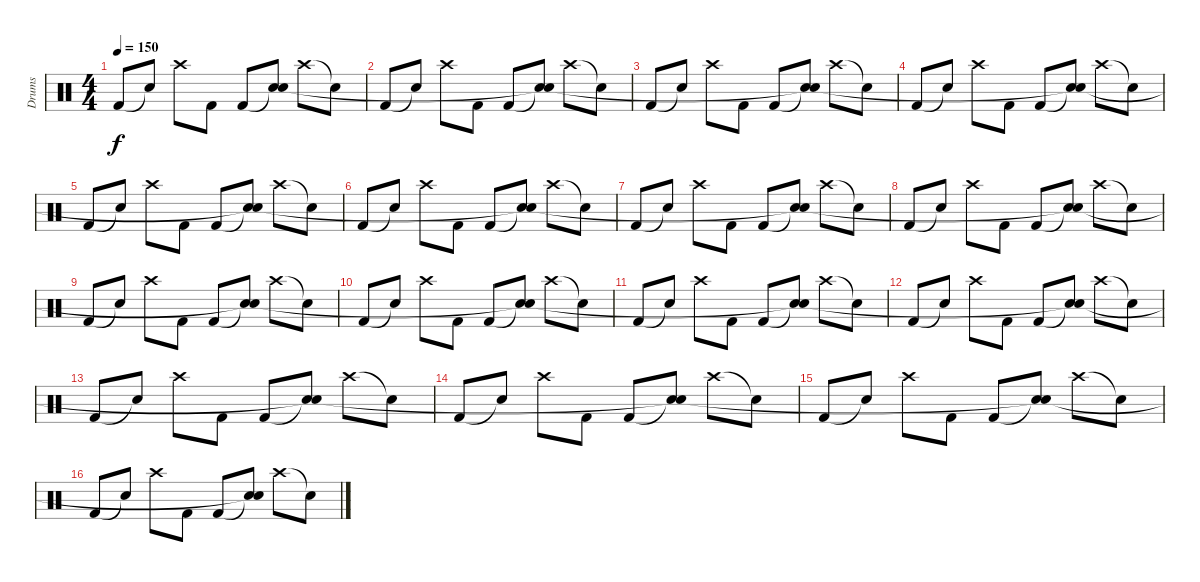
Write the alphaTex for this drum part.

\track ("Drums" "Drums") {instrument percussion}
\staff {score}
\articulation defaults
\ts (4 4)
\tempo 150
\clef neutral
\ks c "Kick (hit) 2".8{dy f} "Snare (hit)"{t}.8 "Crash high (hit)".8 "Kick (hit) 2".8 "Kick (hit) 2".8
("Snare (hit)"{t} "Snare (hit)"{t}).8 "Crash high (hit)".8 "Snare (hit)"{t}.8 |
"Kick (hit) 2".8 "Snare (hit)"{t}.8 "Crash high (hit)".8 "Kick (hit) 2".8 "Kick (hit) 2".8 ("Snare (hit)"{t} "Snare (hit)"{t}).8 "Crash high (hit)".8 "Snare (hit)"{t}.8 |
"Kick (hit) 2".8 "Snare (hit)"{t}.8 "Crash high (hit)".8 "Kick (hit) 2".8 "Kick (hit) 2".8 ("Snare (hit)"{t} "Snare (hit)"{t}).8 "Crash high (hit)".8 "Snare (hit)"{t}.8 |
"Kick (hit) 2".8 "Snare (hit)"{t}.8 "Crash high (hit)".8 "Kick (hit) 2".8 "Kick (hit) 2".8 ("Snare (hit)"{t} "Snare (hit)"{t}).8 "Crash high (hit)".8 "Snare (hit)"{t}.8 |
"Kick (hit) 2".8 "Snare (hit)"{t}.8 "Crash high (hit)".8 "Kick (hit) 2".8 "Kick (hit) 2".8 ("Snare (hit)"{t} "Snare (hit)"{t}).8 "Crash high (hit)".8 "Snare (hit)"{t}.8 |
"Kick (hit) 2".8 "Snare (hit)"{t}.8 "Crash high (hit)".8 "Kick (hit) 2".8 "Kick (hit) 2".8 ("Snare (hit)"{t} "Snare (hit)"{t}).8 "Crash high (hit)".8 "Snare (hit)"{t}.8 |
"Kick (hit) 2".8 "Snare (hit)"{t}.8 "Crash high (hit)".8 "Kick (hit) 2".8 "Kick (hit) 2".8 ("Snare (hit)"{t} "Snare (hit)"{t}).8 "Crash high (hit)".8 "Snare (hit)"{t}.8 |
"Kick (hit) 2".8 "Snare (hit)"{t}.8 "Crash high (hit)".8 "Kick (hit) 2".8 "Kick (hit) 2".8 ("Snare (hit)"{t} "Snare (hit)"{t}).8 "Crash high (hit)".8 "Snare (hit)"{t}.8 |
"Kick (hit) 2".8 "Snare (hit)"{t}.8 "Crash high (hit)".8 "Kick (hit) 2".8 "Kick (hit) 2".8 ("Snare (hit)"{t} "Snare (hit)"{t}).8 "Crash high (hit)".8 "Snare (hit)"{t}.8 |
"Kick (hit) 2".8 "Snare (hit)"{t}.8 "Crash high (hit)".8 "Kick (hit) 2".8 "Kick (hit) 2".8 ("Snare (hit)"{t} "Snare (hit)"{t}).8 "Crash high (hit)".8 "Snare (hit)"{t}.8 |
"Kick (hit) 2".8 "Snare (hit)"{t}.8 "Crash high (hit)".8 "Kick (hit) 2".8 "Kick (hit) 2".8 ("Snare (hit)"{t} "Snare (hit)"{t}).8 "Crash high (hit)".8 "Snare (hit)"{t}.8 |
"Kick (hit) 2".8 "Snare (hit)"{t}.8 "Crash high (hit)".8 "Kick (hit) 2".8 "Kick (hit) 2".8 ("Snare (hit)"{t} "Snare (hit)"{t}).8 "Crash high (hit)".8 "Snare (hit)"{t}.8 |
"Kick (hit) 2".8{volume 6} "Snare (hit)"{t}.8 "Crash high (hit)".8 "Kick (hit) 2".8 "Kick (hit) 2".8 ("Snare (hit)"{t} "Snare (hit)"{t}).8 "Crash high (hit)".8 "Snare (hit)"{t}.8 |
"Kick (hit) 2".8 "Snare (hit)"{t}.8 "Crash high (hit)".8 "Kick (hit) 2".8 "Kick (hit) 2".8 ("Snare (hit)"{t} "Snare (hit)"{t}).8 "Crash high (hit)".8 "Snare (hit)"{t}.8 |
"Kick (hit) 2".8 "Snare (hit)"{t}.8 "Crash high (hit)".8 "Kick (hit) 2".8 "Kick (hit) 2".8 ("Snare (hit)"{t} "Snare (hit)"{t}).8 "Crash high (hit)".8 "Snare (hit)"{t}.8 |
"Kick (hit) 2".8 "Snare (hit)"{t}.8 "Crash high (hit)".8 "Kick (hit) 2".8 "Kick (hit) 2".8 ("Snare (hit)"{t} "Snare (hit)"{t}).8 "Crash high (hit)".8 "Snare (hit)"{t}.8
